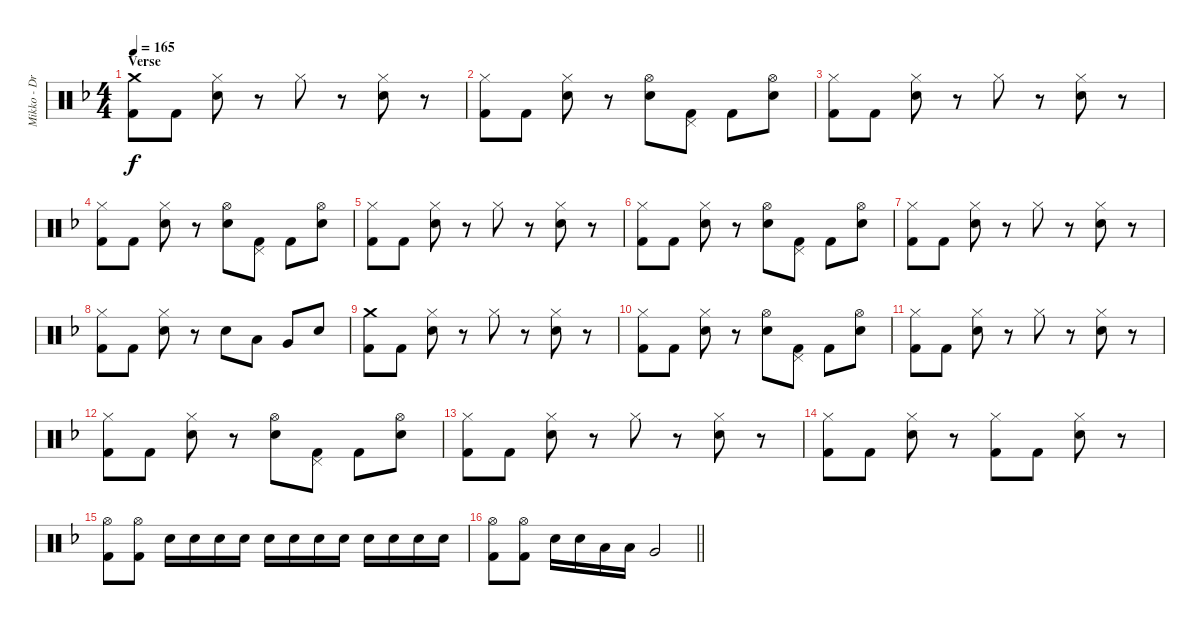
\track ("Mikko - Drums" "Mikko - Dr") {instrument percussion}
\staff {score}
\articulation defaults
\ts (4 4)
\section ("" "Verse")
\tempo 165
\clef neutral
\ks dminor
("Crash medium (hit)" "Kick (hit) 2").8{dy f} "Kick (hit) 2".8 ("Hi-Hat (closed)" "Snare (hit) 2").8 r.8 "Hi-Hat (closed)".8 r.8 ("Hi-Hat (closed)" "Snare (hit) 2").8 r.8 |
("Hi-Hat (closed)" "Kick (hit) 2").8 "Kick (hit) 2".8 ("Hi-Hat (closed)" "Snare (hit) 2").8 r.8 ("Hi-Hat (open)" "Snare (hit) 2").8 ("Pedal Hi-Hat (hit)" "Kick (hit) 2").8 "Kick (hit) 2".8 ("Hi-Hat (open)" "Snare (hit) 2").8 |
("Hi-Hat (closed)" "Kick (hit) 2").8 "Kick (hit) 2".8 ("Hi-Hat (closed)" "Snare (hit) 2").8 r.8 "Hi-Hat (closed)".8 r.8 ("Hi-Hat (closed)" "Snare (hit) 2").8 r.8 |
("Hi-Hat (closed)" "Kick (hit) 2").8 "Kick (hit) 2".8 ("Hi-Hat (closed)" "Snare (hit) 2").8 r.8 ("Hi-Hat (open)" "Snare (hit) 2").8 ("Pedal Hi-Hat (hit)" "Kick (hit) 2").8 "Kick (hit) 2".8 ("Hi-Hat (open)" "Snare (hit) 2").8 |
("Hi-Hat (closed)" "Kick (hit) 2").8 "Kick (hit) 2".8 ("Hi-Hat (closed)" "Snare (hit) 2").8 r.8 "Hi-Hat (closed)".8 r.8 ("Hi-Hat (closed)" "Snare (hit) 2").8 r.8 |
("Hi-Hat (closed)" "Kick (hit) 2").8 "Kick (hit) 2".8 ("Hi-Hat (closed)" "Snare (hit) 2").8 r.8 ("Hi-Hat (open)" "Snare (hit) 2").8 ("Pedal Hi-Hat (hit)" "Kick (hit) 2").8 "Kick (hit) 2".8 ("Hi-Hat (open)" "Snare (hit) 2").8 |
("Hi-Hat (closed)" "Kick (hit) 2").8 "Kick (hit) 2".8 ("Hi-Hat (closed)" "Snare (hit) 2").8 r.8 "Hi-Hat (closed)".8 r.8 ("Hi-Hat (closed)" "Snare (hit) 2").8 r.8 |
("Hi-Hat (closed)" "Kick (hit) 2").8 "Kick (hit) 2".8 ("Hi-Hat (closed)" "Snare (hit) 2").8 r.8 "Snare (hit) 2".8 "Low Tom (hit)".8 "Very Low Tom (hit)".8 "Snare (hit) 2".8 |
("Crash medium (hit)" "Kick (hit) 2").8 "Kick (hit) 2".8 ("Hi-Hat (closed)" "Snare (hit) 2").8 r.8 "Hi-Hat (closed)".8 r.8 ("Hi-Hat (closed)" "Snare (hit) 2").8 r.8 |
("Hi-Hat (closed)" "Kick (hit) 2").8 "Kick (hit) 2".8 ("Hi-Hat (closed)" "Snare (hit) 2").8 r.8 ("Hi-Hat (open)" "Snare (hit) 2").8 ("Pedal Hi-Hat (hit)" "Kick (hit) 2").8 "Kick (hit) 2".8 ("Hi-Hat (open)" "Snare (hit) 2").8 |
("Hi-Hat (closed)" "Kick (hit) 2").8 "Kick (hit) 2".8 ("Hi-Hat (closed)" "Snare (hit) 2").8 r.8 "Hi-Hat (closed)".8 r.8 ("Hi-Hat (closed)" "Snare (hit) 2").8 r.8 |
("Hi-Hat (closed)" "Kick (hit) 2").8 "Kick (hit) 2".8 ("Hi-Hat (closed)" "Snare (hit) 2").8 r.8 ("Hi-Hat (open)" "Snare (hit) 2").8 ("Pedal Hi-Hat (hit)" "Kick (hit) 2").8 "Kick (hit) 2".8 ("Hi-Hat (open)" "Snare (hit) 2").8 |
("Hi-Hat (closed)" "Kick (hit) 2").8 "Kick (hit) 2".8 ("Hi-Hat (closed)" "Snare (hit) 2").8 r.8 "Hi-Hat (closed)".8 r.8 ("Hi-Hat (closed)" "Snare (hit) 2").8 r.8 |
("Hi-Hat (closed)" "Kick (hit) 2").8 "Kick (hit) 2".8 ("Hi-Hat (closed)" "Snare (hit) 2").8 r.8 ("Hi-Hat (closed)" "Kick (hit) 2").8 "Kick (hit) 2".8 ("Hi-Hat (closed)" "Snare (hit) 2").8 r.8 |
("Hi-Hat (open)" "Kick (hit) 2").8 ("Hi-Hat (open)" "Kick (hit) 2").8 "Snare (hit) 2".16 "Snare (hit) 2".16 "Snare (hit) 2".16 "Snare (hit) 2".16 "Snare (hit) 2".16 "Snare (hit) 2".16 "Snare (hit) 2".16 "Snare (hit) 2".16 "Snare (hit) 2".16 "Snare (hit) 2".16 "Snare (hit) 2".16 "Snare (hit) 2".16 |
\barLineRight lightlight
("Hi-Hat (open)" "Kick (hit) 2").8 ("Hi-Hat (open)" "Kick (hit) 2").8 "Snare (hit) 2".16 "Snare (hit) 2".16 "Low Tom (hit)".16 "Low Tom (hit)".16 "Very Low Tom (hit)".2
